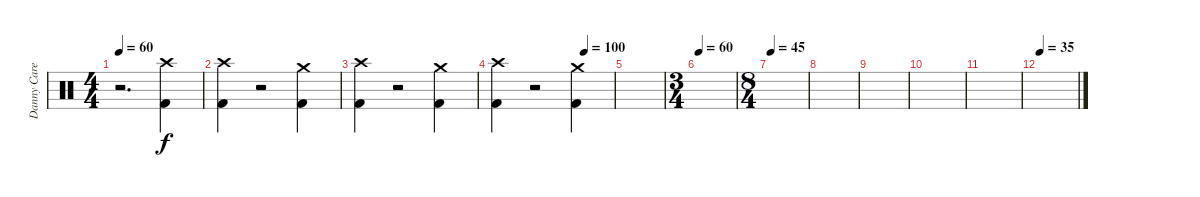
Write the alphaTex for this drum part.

\track ("Danny Carey" "Danny Care") {instrument percussion}
\staff {score}
\articulation defaults
\ts (4 4)
\tempo 60
\clef neutral
\ks c
r.2{d dy f} ("Crash high (hit)" "Kick (hit) 2").4 |
("Crash high (hit)" "Kick (hit) 2").4 r.2 ("Crash medium (hit)" "Kick (hit) 2").4 |
("Crash high (hit)" "Kick (hit) 2").4 r.2 ("Crash medium (hit)" "Kick (hit) 2").4 |
\tempo (100 0.75)
("Crash high (hit)" "Kick (hit) 2").4 r.2 ("Crash medium (hit)" "Kick (hit) 2").4 |
|
\ts (3 4)
\tempo 60
|
\ts (8 4)
\tempo 45
|
|
|
|
|
\tempo 35
